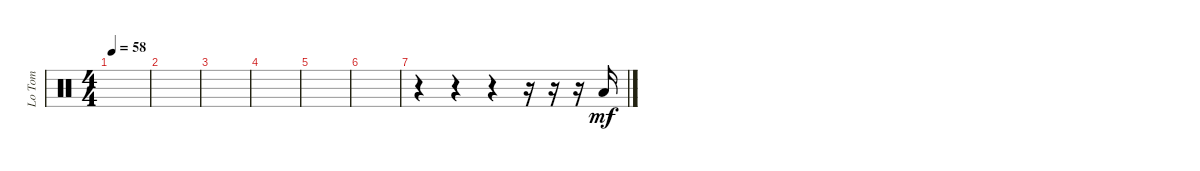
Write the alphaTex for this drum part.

\track ("Lo Tom" "Lo Tom") {instrument percussion}
\staff {score}
\articulation defaults
\ts (4 4)
\tempo 58
\clef neutral
\ks c
|
|
|
|
|
|
r.4 r.4 r.4 r.16 r.16 r.16 "Low Tom (hit)".16{dy mf}
